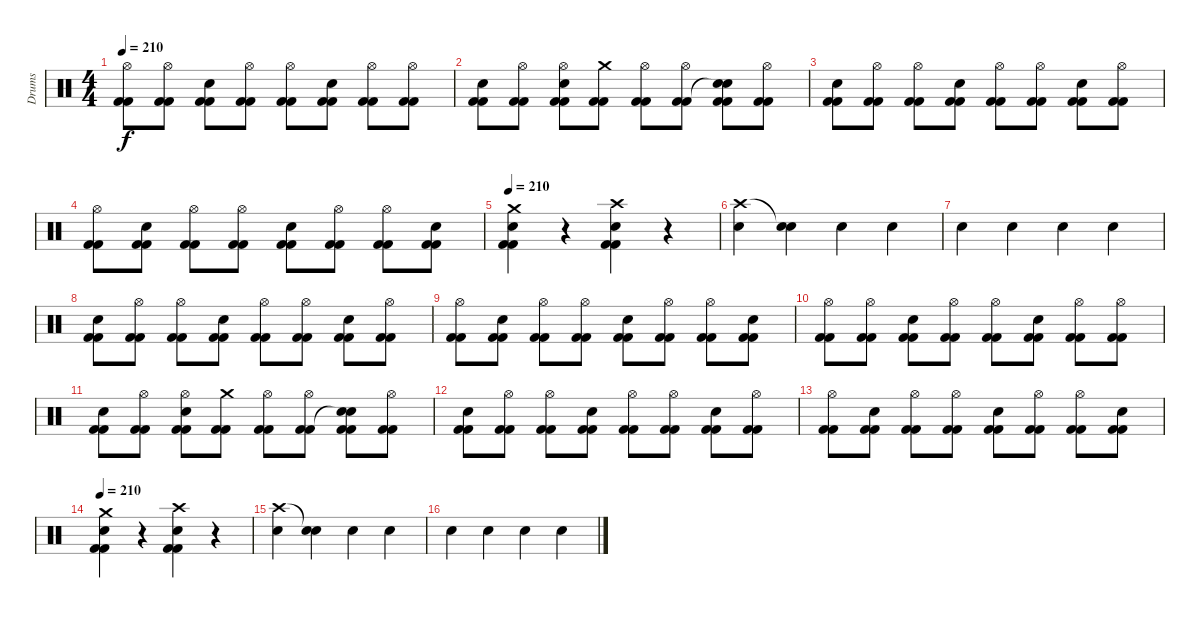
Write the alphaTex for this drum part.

\track ("Drums" "Drums") {instrument percussion}
\staff {score}
\articulation defaults
\ts (4 4)
\tempo 210
\clef neutral
\ks c
("Hi-Hat (open)" "Kick (hit) 2" "Kick (hit) 2").8{dy f} ("Hi-Hat (open)" "Kick (hit) 2" "Kick (hit) 2").8 ("Snare (hit) 2" "Kick (hit) 2" "Kick (hit) 2").8 ("Hi-Hat (open)" "Kick (hit) 2" "Kick (hit) 2").8 ("Hi-Hat (open)" "Kick (hit) 2" "Kick (hit) 2").8 ("Snare (hit) 2" "Kick (hit) 2" "Kick (hit) 2").8 ("Hi-Hat (open)" "Kick (hit) 2" "Kick (hit) 2").8 ("Hi-Hat (open)" "Kick (hit) 2" "Kick (hit) 2").8 |
("Snare (hit) 2" "Kick (hit) 2" "Kick (hit) 2").8 ("Hi-Hat (open)" "Kick (hit) 2" "Kick (hit) 2").8 ("Hi-Hat (open)" "Electric Snare (hit)" "Kick (hit) 2" "Kick (hit) 2").8 ("Crash medium (hit)" "Kick (hit) 2" "Kick (hit) 2").8 ("Hi-Hat (open)" "Kick (hit) 2" "Kick (hit) 2").8 ("Hi-Hat (open)" "Kick (hit) 2" "Kick (hit) 2").8 ("Snare (hit) 2" "Snare (hit)"{t} "Kick (hit) 2" "Kick (hit) 2").8 ("Hi-Hat (open)" "Kick (hit) 2" "Kick (hit) 2").8 |
("Snare (hit) 2" "Kick (hit) 2" "Kick (hit) 2").8 ("Hi-Hat (open)" "Kick (hit) 2" "Kick (hit) 2").8 ("Hi-Hat (open)" "Kick (hit) 2" "Kick (hit) 2").8 ("Snare (hit) 2" "Kick (hit) 2" "Kick (hit) 2").8 ("Hi-Hat (open)" "Kick (hit) 2" "Kick (hit) 2").8 ("Hi-Hat (open)" "Kick (hit) 2" "Kick (hit) 2").8 ("Snare (hit) 2" "Kick (hit) 2" "Kick (hit) 2").8 ("Hi-Hat (open)" "Kick (hit) 2" "Kick (hit) 2").8 |
("Hi-Hat (open)" "Kick (hit) 2" "Kick (hit) 2").8 ("Snare (hit) 2" "Kick (hit) 2" "Kick (hit) 2").8 ("Hi-Hat (open)" "Kick (hit) 2" "Kick (hit) 2").8 ("Hi-Hat (open)" "Kick (hit) 2" "Kick (hit) 2").8 ("Snare (hit) 2" "Kick (hit) 2" "Kick (hit) 2").8 ("Hi-Hat (open)" "Kick (hit) 2" "Kick (hit) 2").8 ("Hi-Hat (open)" "Kick (hit) 2" "Kick (hit) 2").8 ("Snare (hit) 2" "Kick (hit) 2" "Kick (hit) 2").8 |
\tempo 210
("Crash medium (hit)" "Snare (hit) 2" "Kick (hit) 2" "Kick (hit) 2").4 r.4 ("Crash high (hit)" "Snare (hit) 2" "Kick (hit) 2" "Kick (hit) 2").4 r.4 |
("Crash high (hit)" "Snare (hit) 2").4 ("Snare (hit)"{t} "Snare (hit) 2").4 "Snare (hit) 2".4 "Snare (hit) 2".4 |
"Snare (hit) 2".4 "Snare (hit) 2".4 "Snare (hit) 2".4 "Snare (hit) 2".4 |
("Snare (hit) 2" "Kick (hit) 2" "Kick (hit) 2").8 ("Hi-Hat (open)" "Kick (hit) 2" "Kick (hit) 2").8 ("Hi-Hat (open)" "Kick (hit) 2" "Kick (hit) 2").8 ("Snare (hit) 2" "Kick (hit) 2" "Kick (hit) 2").8 ("Hi-Hat (open)" "Kick (hit) 2" "Kick (hit) 2").8 ("Hi-Hat (open)" "Kick (hit) 2" "Kick (hit) 2").8 ("Snare (hit) 2" "Kick (hit) 2" "Kick (hit) 2").8 ("Hi-Hat (open)" "Kick (hit) 2" "Kick (hit) 2").8 |
("Hi-Hat (open)" "Kick (hit) 2" "Kick (hit) 2").8 ("Snare (hit) 2" "Kick (hit) 2" "Kick (hit) 2").8 ("Hi-Hat (open)" "Kick (hit) 2" "Kick (hit) 2").8 ("Hi-Hat (open)" "Kick (hit) 2" "Kick (hit) 2").8 ("Snare (hit) 2" "Kick (hit) 2" "Kick (hit) 2").8 ("Hi-Hat (open)" "Kick (hit) 2" "Kick (hit) 2").8 ("Hi-Hat (open)" "Kick (hit) 2" "Kick (hit) 2").8 ("Snare (hit) 2" "Kick (hit) 2" "Kick (hit) 2").8 |
("Hi-Hat (open)" "Kick (hit) 2" "Kick (hit) 2").8 ("Hi-Hat (open)" "Kick (hit) 2" "Kick (hit) 2").8 ("Snare (hit) 2" "Kick (hit) 2" "Kick (hit) 2").8 ("Hi-Hat (open)" "Kick (hit) 2" "Kick (hit) 2").8 ("Hi-Hat (open)" "Kick (hit) 2" "Kick (hit) 2").8 ("Snare (hit) 2" "Kick (hit) 2" "Kick (hit) 2").8 ("Hi-Hat (open)" "Kick (hit) 2" "Kick (hit) 2").8 ("Hi-Hat (open)" "Kick (hit) 2" "Kick (hit) 2").8 |
("Snare (hit) 2" "Kick (hit) 2" "Kick (hit) 2").8 ("Hi-Hat (open)" "Kick (hit) 2" "Kick (hit) 2").8 ("Hi-Hat (open)" "Electric Snare (hit)" "Kick (hit) 2" "Kick (hit) 2").8 ("Crash medium (hit)" "Kick (hit) 2" "Kick (hit) 2").8 ("Hi-Hat (open)" "Kick (hit) 2" "Kick (hit) 2").8 ("Hi-Hat (open)" "Kick (hit) 2" "Kick (hit) 2").8 ("Snare (hit) 2" "Snare (hit)"{t} "Kick (hit) 2" "Kick (hit) 2").8 ("Hi-Hat (open)" "Kick (hit) 2" "Kick (hit) 2").8 |
("Snare (hit) 2" "Kick (hit) 2" "Kick (hit) 2").8 ("Hi-Hat (open)" "Kick (hit) 2" "Kick (hit) 2").8 ("Hi-Hat (open)" "Kick (hit) 2" "Kick (hit) 2").8 ("Snare (hit) 2" "Kick (hit) 2" "Kick (hit) 2").8 ("Hi-Hat (open)" "Kick (hit) 2" "Kick (hit) 2").8 ("Hi-Hat (open)" "Kick (hit) 2" "Kick (hit) 2").8 ("Snare (hit) 2" "Kick (hit) 2" "Kick (hit) 2").8 ("Hi-Hat (open)" "Kick (hit) 2" "Kick (hit) 2").8 |
("Hi-Hat (open)" "Kick (hit) 2" "Kick (hit) 2").8 ("Snare (hit) 2" "Kick (hit) 2" "Kick (hit) 2").8 ("Hi-Hat (open)" "Kick (hit) 2" "Kick (hit) 2").8 ("Hi-Hat (open)" "Kick (hit) 2" "Kick (hit) 2").8 ("Snare (hit) 2" "Kick (hit) 2" "Kick (hit) 2").8 ("Hi-Hat (open)" "Kick (hit) 2" "Kick (hit) 2").8 ("Hi-Hat (open)" "Kick (hit) 2" "Kick (hit) 2").8 ("Snare (hit) 2" "Kick (hit) 2" "Kick (hit) 2").8 |
\tempo 210
("Crash medium (hit)" "Snare (hit) 2" "Kick (hit) 2" "Kick (hit) 2").4 r.4 ("Crash high (hit)" "Snare (hit) 2" "Kick (hit) 2" "Kick (hit) 2").4 r.4 |
("Crash high (hit)" "Snare (hit) 2").4 ("Snare (hit)"{t} "Snare (hit) 2").4 "Snare (hit) 2".4 "Snare (hit) 2".4 |
"Snare (hit) 2".4 "Snare (hit) 2".4 "Snare (hit) 2".4 "Snare (hit) 2".4
